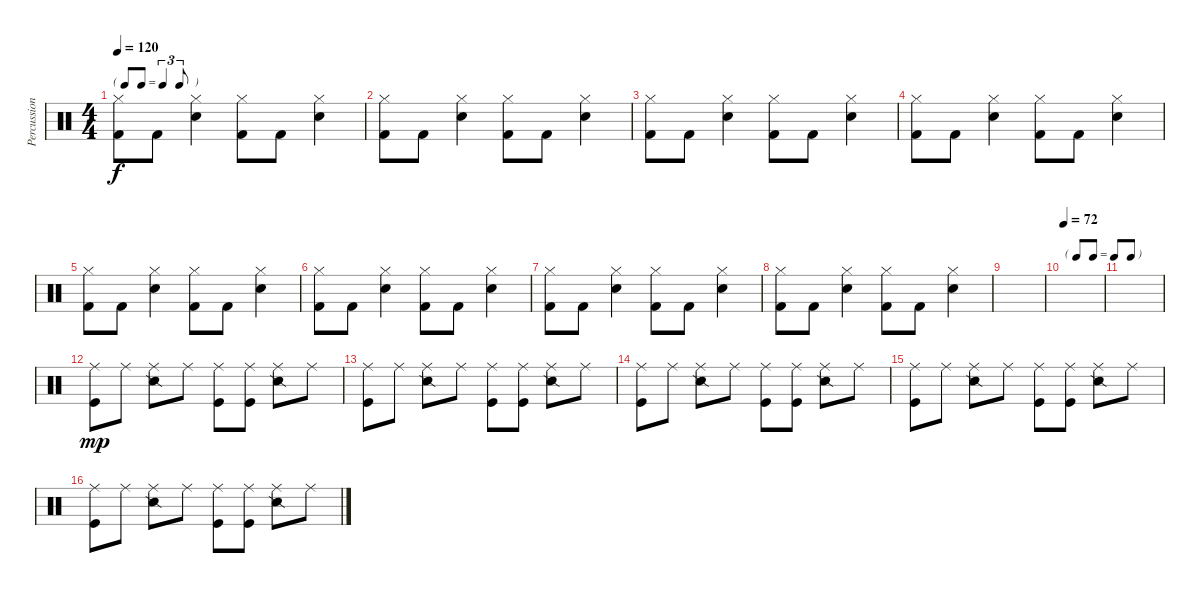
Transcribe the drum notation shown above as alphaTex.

\track ("Percussion" "Percussion") {instrument percussion}
\staff {score}
\articulation defaults
\ts (4 4)
\tf triplet8th
\tempo 120
\clef neutral
\ks c
("Hi-Hat (closed)" "Kick (hit) 2").8{dy f} "Kick (hit) 2".8 ("Hi-Hat (closed)" "Electric Snare (hit)").4 ("Hi-Hat (closed)" "Kick (hit) 2").8 "Kick (hit) 2".8 ("Hi-Hat (closed)" "Electric Snare (hit)").4 |
("Hi-Hat (closed)" "Kick (hit) 2").8 "Kick (hit) 2".8 ("Hi-Hat (closed)" "Electric Snare (hit)").4 ("Hi-Hat (closed)" "Kick (hit) 2").8 "Kick (hit) 2".8 ("Hi-Hat (closed)" "Electric Snare (hit)").4 |
("Hi-Hat (closed)" "Kick (hit) 2").8 "Kick (hit) 2".8 ("Hi-Hat (closed)" "Electric Snare (hit)").4 ("Hi-Hat (closed)" "Kick (hit) 2").8 "Kick (hit) 2".8 ("Hi-Hat (closed)" "Electric Snare (hit)").4 |
("Hi-Hat (closed)" "Kick (hit) 2").8 "Kick (hit) 2".8 ("Hi-Hat (closed)" "Electric Snare (hit)").4 ("Hi-Hat (closed)" "Kick (hit) 2").8 "Kick (hit) 2".8 ("Hi-Hat (closed)" "Electric Snare (hit)").4 |
("Hi-Hat (closed)" "Kick (hit) 2").8 "Kick (hit) 2".8 ("Hi-Hat (closed)" "Electric Snare (hit)").4 ("Hi-Hat (closed)" "Kick (hit) 2").8 "Kick (hit) 2".8 ("Hi-Hat (closed)" "Electric Snare (hit)").4 |
("Hi-Hat (closed)" "Kick (hit) 2").8 "Kick (hit) 2".8 ("Hi-Hat (closed)" "Electric Snare (hit)").4 ("Hi-Hat (closed)" "Kick (hit) 2").8 "Kick (hit) 2".8 ("Hi-Hat (closed)" "Electric Snare (hit)").4 |
("Hi-Hat (closed)" "Kick (hit) 2").8 "Kick (hit) 2".8 ("Hi-Hat (closed)" "Electric Snare (hit)").4 ("Hi-Hat (closed)" "Kick (hit) 2").8 "Kick (hit) 2".8 ("Hi-Hat (closed)" "Electric Snare (hit)").4 |
("Hi-Hat (closed)" "Kick (hit) 2").8 "Kick (hit) 2".8 ("Hi-Hat (closed)" "Electric Snare (hit)").4 ("Hi-Hat (closed)" "Kick (hit) 2").8 "Kick (hit) 2".8 ("Hi-Hat (closed)" "Electric Snare (hit)").4 |
|
\tf none
\tempo 72
|
|
("Ride (middle)" "Kick (hit)").8{dy mp} "Ride (middle)".8 ("Ride (middle)" "Snare (side stick) 2").8 "Ride (middle)".8 ("Ride (middle)" "Kick (hit)").8 ("Ride (middle)" "Kick (hit)").8 ("Ride (middle)" "Snare (side stick) 2").8 "Ride (middle)".8 |
("Ride (middle)" "Kick (hit)").8 "Ride (middle)".8 ("Ride (middle)" "Snare (side stick) 2").8 "Ride (middle)".8 ("Ride (middle)" "Kick (hit)").8 ("Ride (middle)" "Kick (hit)").8 ("Ride (middle)" "Snare (side stick) 2").8 "Ride (middle)".8 |
("Ride (middle)" "Kick (hit)").8 "Ride (middle)".8 ("Ride (middle)" "Snare (side stick) 2").8 "Ride (middle)".8 ("Ride (middle)" "Kick (hit)").8 ("Ride (middle)" "Kick (hit)").8 ("Ride (middle)" "Snare (side stick) 2").8 "Ride (middle)".8 |
("Ride (middle)" "Kick (hit)").8 "Ride (middle)".8 ("Ride (middle)" "Snare (side stick) 2").8 "Ride (middle)".8 ("Ride (middle)" "Kick (hit)").8 ("Ride (middle)" "Kick (hit)").8 ("Ride (middle)" "Snare (side stick) 2").8 "Ride (middle)".8 |
("Ride (middle)" "Kick (hit)").8 "Ride (middle)".8 ("Ride (middle)" "Snare (side stick) 2").8 "Ride (middle)".8 ("Ride (middle)" "Kick (hit)").8 ("Ride (middle)" "Kick (hit)").8 ("Ride (middle)" "Snare (side stick) 2").8 "Ride (middle)".8
